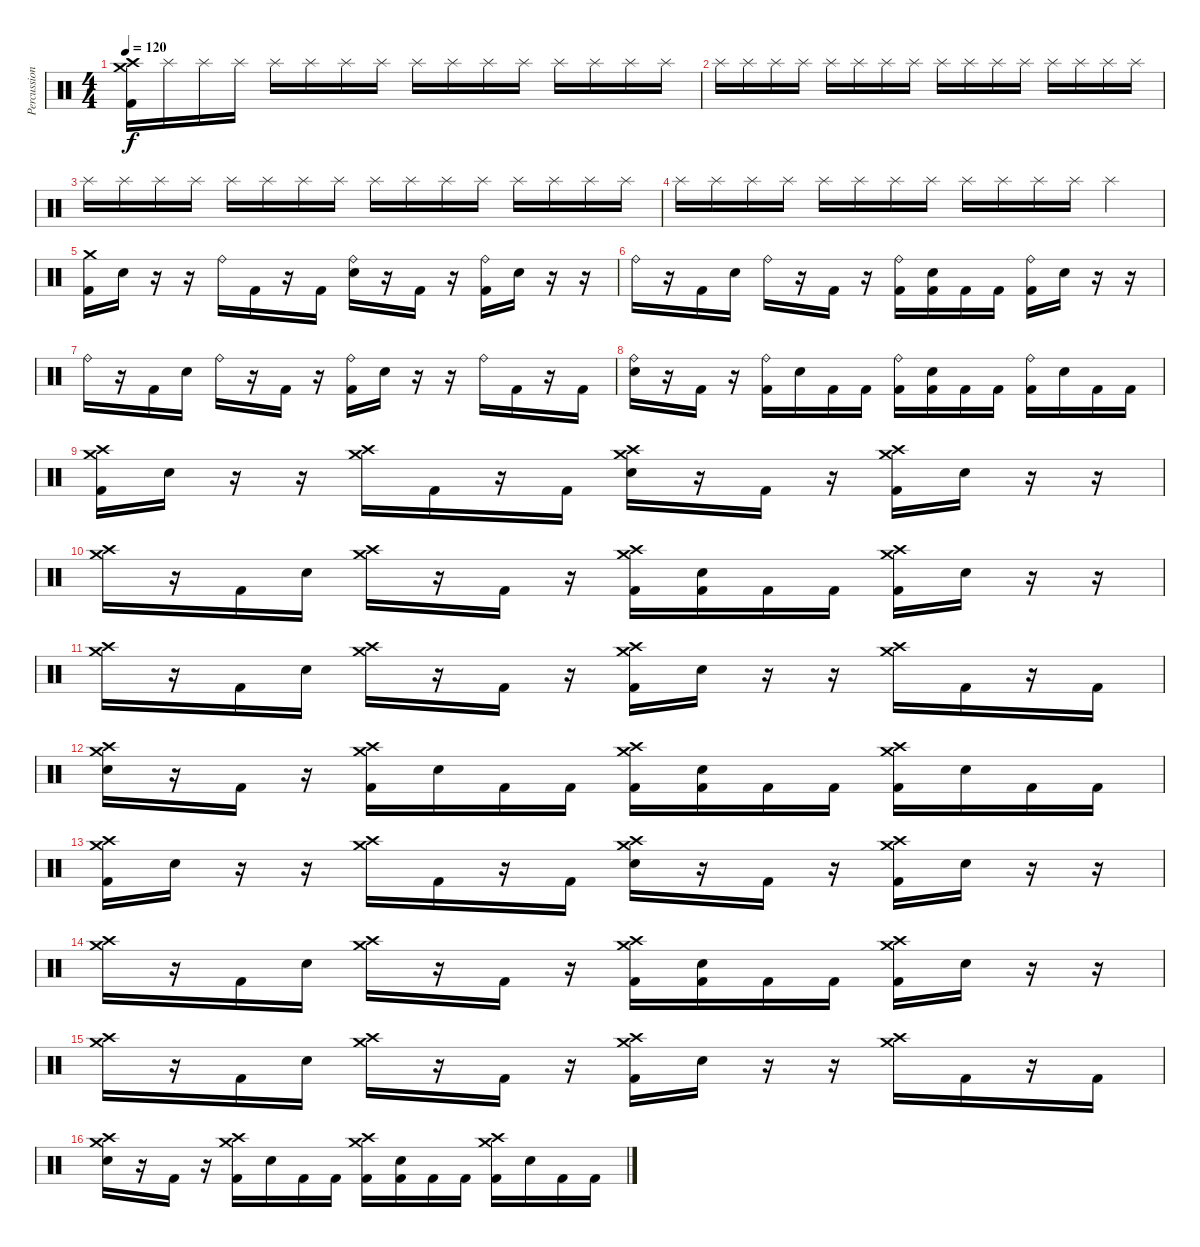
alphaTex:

\track ("Percussion" "Percussion") {instrument percussion}
\staff {score}
\articulation defaults
\ts (4 4)
\tempo 120
\clef neutral
\ks c
("Crash high (hit)" "Crash medium (hit)" "Kick (hit) 2").16{dy f} "Splash (hit)".16 "Splash (hit)".16 "Splash (hit)".16 "Splash (hit)".16 "Splash (hit)".16 "Splash (hit)".16 "Splash (hit)".16 "Splash (hit)".16 "Splash (hit)".16 "Splash (hit)".16 "Splash (hit)".16 "Splash (hit)".16 "Splash (hit)".16 "Splash (hit)".16 "Splash (hit)".16 |
"Splash (hit)".16 "Splash (hit)".16 "Splash (hit)".16 "Splash (hit)".16 "Splash (hit)".16 "Splash (hit)".16 "Splash (hit)".16 "Splash (hit)".16 "Splash (hit)".16 "Splash (hit)".16 "Splash (hit)".16 "Splash (hit)".16 "Splash (hit)".16 "Splash (hit)".16 "Splash (hit)".16 "Splash (hit)".16 |
"Splash (hit)".16 "Splash (hit)".16 "Splash (hit)".16 "Splash (hit)".16 "Splash (hit)".16 "Splash (hit)".16 "Splash (hit)".16 "Splash (hit)".16 "Splash (hit)".16 "Splash (hit)".16 "Splash (hit)".16 "Splash (hit)".16 "Splash (hit)".16 "Splash (hit)".16 "Splash (hit)".16 "Splash (hit)".16 |
"Splash (hit)".16 "Splash (hit)".16 "Splash (hit)".16 "Splash (hit)".16 "Splash (hit)".16 "Splash (hit)".16 "Splash (hit)".16 "Splash (hit)".16 "Splash (hit)".16 "Splash (hit)".16 "Splash (hit)".16 "Splash (hit)".16 "Splash (hit)".4 |
("Crash medium (hit)" "Kick (hit) 2").16 "Snare (hit) 2".16 r.16 r.16 "Ride (bell)".16 "Kick (hit) 2".16 r.16 "Kick (hit) 2".16 ("Ride (bell)" "Snare (hit) 2").16 r.16 "Kick (hit) 2".16 r.16 ("Ride (bell)" "Kick (hit) 2").16 "Snare (hit) 2".16 r.16 r.16 |
"Ride (bell)".16 r.16 "Kick (hit) 2".16 "Snare (hit) 2".16 "Ride (bell)".16 r.16 "Kick (hit) 2".16 r.16 ("Ride (bell)" "Kick (hit) 2").16 ("Snare (hit) 2" "Kick (hit) 2").16 "Kick (hit) 2".16 "Kick (hit) 2".16 ("Ride (bell)" "Kick (hit) 2").16 "Snare (hit) 2".16 r.16 r.16 |
"Ride (bell)".16 r.16 "Kick (hit) 2".16 "Snare (hit) 2".16 "Ride (bell)".16 r.16 "Kick (hit) 2".16 r.16 ("Ride (bell)" "Kick (hit) 2").16 "Snare (hit) 2".16 r.16 r.16 "Ride (bell)".16 "Kick (hit) 2".16 r.16 "Kick (hit) 2".16 |
("Ride (bell)" "Snare (hit) 2").16 r.16 "Kick (hit) 2".16 r.16 ("Ride (bell)" "Kick (hit) 2").16 "Snare (hit) 2".16 "Kick (hit) 2".16 "Kick (hit) 2".16 ("Ride (bell)" "Kick (hit) 2").16 ("Snare (hit) 2" "Kick (hit) 2").16 "Kick (hit) 2".16 "Kick (hit) 2".16 ("Ride (bell)" "Kick (hit) 2").16 "Snare (hit) 2".16 "Kick (hit) 2".16 "Kick (hit) 2".16 |
("Crash medium (hit)" "Crash high (hit)" "Kick (hit) 2").16 "Snare (hit) 2".16 r.16 r.16 ("Crash medium (hit)" "Crash high (hit)").16 "Kick (hit) 2".16 r.16 "Kick (hit) 2".16 ("Crash medium (hit)" "Crash high (hit)" "Snare (hit) 2").16 r.16 "Kick (hit) 2".16 r.16 ("Crash medium (hit)" "Crash high (hit)" "Kick (hit) 2").16 "Snare (hit) 2".16 r.16 r.16 |
("Crash medium (hit)" "Crash high (hit)").16 r.16 "Kick (hit) 2".16 "Snare (hit) 2".16 ("Crash medium (hit)" "Crash high (hit)").16 r.16 "Kick (hit) 2".16 r.16 ("Crash medium (hit)" "Crash high (hit)" "Kick (hit) 2").16 ("Snare (hit) 2" "Kick (hit) 2").16 "Kick (hit) 2".16 "Kick (hit) 2".16 ("Crash medium (hit)" "Crash high (hit)" "Kick (hit) 2").16 "Snare (hit) 2".16 r.16 r.16 |
("Crash medium (hit)" "Crash high (hit)").16 r.16 "Kick (hit) 2".16 "Snare (hit) 2".16 ("Crash medium (hit)" "Crash high (hit)").16 r.16 "Kick (hit) 2".16 r.16 ("Crash medium (hit)" "Crash high (hit)" "Kick (hit) 2").16 "Snare (hit) 2".16 r.16 r.16 ("Crash medium (hit)" "Crash high (hit)").16 "Kick (hit) 2".16 r.16 "Kick (hit) 2".16 |
("Crash medium (hit)" "Crash high (hit)" "Snare (hit) 2").16 r.16 "Kick (hit) 2".16 r.16 ("Crash medium (hit)" "Crash high (hit)" "Kick (hit) 2").16 "Snare (hit) 2".16 "Kick (hit) 2".16 "Kick (hit) 2".16 ("Crash medium (hit)" "Crash high (hit)" "Kick (hit) 2").16 ("Snare (hit) 2" "Kick (hit) 2").16 "Kick (hit) 2".16 "Kick (hit) 2".16 ("Crash medium (hit)" "Crash high (hit)" "Kick (hit) 2").16 "Snare (hit) 2".16 "Kick (hit) 2".16 "Kick (hit) 2".16 |
("Crash medium (hit)" "Crash high (hit)" "Kick (hit) 2").16 "Snare (hit) 2".16 r.16 r.16 ("Crash medium (hit)" "Crash high (hit)").16 "Kick (hit) 2".16 r.16 "Kick (hit) 2".16 ("Crash medium (hit)" "Crash high (hit)" "Snare (hit) 2").16 r.16 "Kick (hit) 2".16 r.16 ("Crash medium (hit)" "Crash high (hit)" "Kick (hit) 2").16 "Snare (hit) 2".16 r.16 r.16 |
("Crash medium (hit)" "Crash high (hit)").16 r.16 "Kick (hit) 2".16 "Snare (hit) 2".16 ("Crash medium (hit)" "Crash high (hit)").16 r.16 "Kick (hit) 2".16 r.16 ("Crash medium (hit)" "Crash high (hit)" "Kick (hit) 2").16 ("Snare (hit) 2" "Kick (hit) 2").16 "Kick (hit) 2".16 "Kick (hit) 2".16 ("Crash medium (hit)" "Crash high (hit)" "Kick (hit) 2").16 "Snare (hit) 2".16 r.16 r.16 |
("Crash medium (hit)" "Crash high (hit)").16 r.16 "Kick (hit) 2".16 "Snare (hit) 2".16 ("Crash medium (hit)" "Crash high (hit)").16 r.16 "Kick (hit) 2".16 r.16 ("Crash medium (hit)" "Crash high (hit)" "Kick (hit) 2").16 "Snare (hit) 2".16 r.16 r.16 ("Crash medium (hit)" "Crash high (hit)").16 "Kick (hit) 2".16 r.16 "Kick (hit) 2".16 |
("Crash medium (hit)" "Crash high (hit)" "Snare (hit) 2").16 r.16 "Kick (hit) 2".16 r.16 ("Crash medium (hit)" "Crash high (hit)" "Kick (hit) 2").16 "Snare (hit) 2".16 "Kick (hit) 2".16 "Kick (hit) 2".16 ("Crash medium (hit)" "Crash high (hit)" "Kick (hit) 2").16 ("Snare (hit) 2" "Kick (hit) 2").16 "Kick (hit) 2".16 "Kick (hit) 2".16 ("Crash medium (hit)" "Crash high (hit)" "Kick (hit) 2").16 "Snare (hit) 2".16 "Kick (hit) 2".16 "Kick (hit) 2".16
